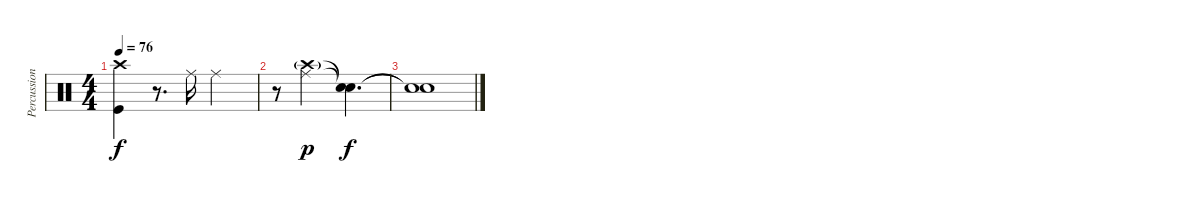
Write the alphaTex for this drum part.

\track ("Percussion" "Percussion") {instrument percussion}
\staff {score}
\articulation defaults
\ts (4 4)
\tempo 76
\clef neutral
\ks c
("Crash high (hit)" "Kick (hit)").4{dy f} r.8{d} "Ride (middle)".16 "Ride (middle)".2 |
r.8 ("Crash high (hit)"{g} "Ride (middle)").2{dy p} ("Snare (hit)"{t} "Snare (hit)"{t}).4{d dy f} |
("Snare (hit)"{t} "Snare (hit)"{t}).1
